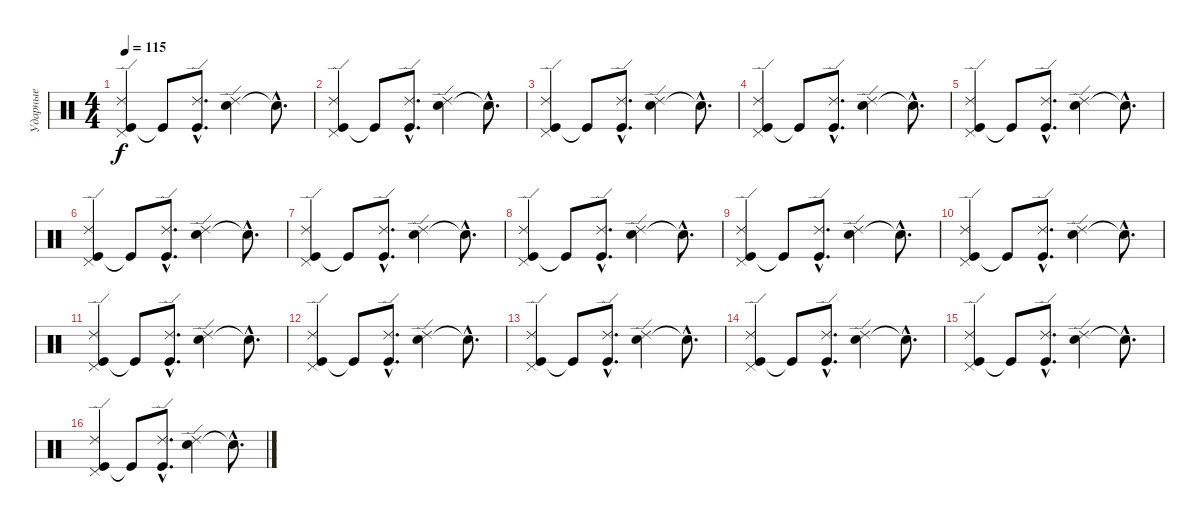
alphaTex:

\track ("Ударные" "Ударные") {instrument percussion}
\staff {score}
\articulation defaults
\ts (4 4)
\tempo 115
\clef neutral
\ks c
("Kick (hit)" "Ride (edge) 2" "Pedal Hi-Hat (hit)").4{dy f} "Kick (hit)"{t}.8 ("Kick (hit)"{hac} "Ride (edge) 2"{hac}).8{d} ("Electric Snare (hit)" "Ride (edge) 2").4 "Snare (hit)"{hac t}.8{d} |
("Kick (hit)" "Ride (edge) 2" "Pedal Hi-Hat (hit)").4 "Kick (hit)"{t}.8 ("Kick (hit)"{hac} "Ride (edge) 2"{hac}).8{d} ("Electric Snare (hit)" "Ride (edge) 2").4 "Snare (hit)"{hac t}.8{d} |
("Kick (hit)" "Ride (edge) 2" "Pedal Hi-Hat (hit)").4 "Kick (hit)"{t}.8 ("Kick (hit)"{hac} "Ride (edge) 2"{hac}).8{d} ("Electric Snare (hit)" "Ride (edge) 2").4 "Snare (hit)"{hac t}.8{d} |
("Kick (hit)" "Ride (edge) 2" "Pedal Hi-Hat (hit)").4 "Kick (hit)"{t}.8 ("Kick (hit)"{hac} "Ride (edge) 2"{hac}).8{d} ("Electric Snare (hit)" "Ride (edge) 2").4 "Snare (hit)"{hac t}.8{d} |
("Kick (hit)" "Ride (edge) 2" "Pedal Hi-Hat (hit)").4 "Kick (hit)"{t}.8 ("Kick (hit)"{hac} "Ride (edge) 2"{hac}).8{d} ("Electric Snare (hit)" "Ride (edge) 2").4 "Snare (hit)"{hac t}.8{d} |
("Kick (hit)" "Ride (edge) 2" "Pedal Hi-Hat (hit)").4 "Kick (hit)"{t}.8 ("Kick (hit)"{hac} "Ride (edge) 2"{hac}).8{d} ("Electric Snare (hit)" "Ride (edge) 2").4 "Snare (hit)"{hac t}.8{d} |
("Kick (hit)" "Ride (edge) 2" "Pedal Hi-Hat (hit)").4 "Kick (hit)"{t}.8 ("Kick (hit)"{hac} "Ride (edge) 2"{hac}).8{d} ("Electric Snare (hit)" "Ride (edge) 2").4 "Snare (hit)"{hac t}.8{d} |
("Kick (hit)" "Ride (edge) 2" "Pedal Hi-Hat (hit)").4 "Kick (hit)"{t}.8 ("Kick (hit)"{hac} "Ride (edge) 2"{hac}).8{d} ("Electric Snare (hit)" "Ride (edge) 2").4 "Snare (hit)"{hac t}.8{d} |
("Kick (hit)" "Ride (edge) 2" "Pedal Hi-Hat (hit)").4 "Kick (hit)"{t}.8 ("Kick (hit)"{hac} "Ride (edge) 2"{hac}).8{d} ("Electric Snare (hit)" "Ride (edge) 2").4 "Snare (hit)"{hac t}.8{d} |
("Kick (hit)" "Ride (edge) 2" "Pedal Hi-Hat (hit)").4 "Kick (hit)"{t}.8 ("Kick (hit)"{hac} "Ride (edge) 2"{hac}).8{d} ("Electric Snare (hit)" "Ride (edge) 2").4 "Snare (hit)"{hac t}.8{d} |
("Kick (hit)" "Ride (edge) 2" "Pedal Hi-Hat (hit)").4 "Kick (hit)"{t}.8 ("Kick (hit)"{hac} "Ride (edge) 2"{hac}).8{d} ("Electric Snare (hit)" "Ride (edge) 2").4 "Snare (hit)"{hac t}.8{d} |
("Kick (hit)" "Ride (edge) 2" "Pedal Hi-Hat (hit)").4 "Kick (hit)"{t}.8 ("Kick (hit)"{hac} "Ride (edge) 2"{hac}).8{d} ("Electric Snare (hit)" "Ride (edge) 2").4 "Snare (hit)"{hac t}.8{d} |
("Kick (hit)" "Ride (edge) 2" "Pedal Hi-Hat (hit)").4 "Kick (hit)"{t}.8 ("Kick (hit)"{hac} "Ride (edge) 2"{hac}).8{d} ("Electric Snare (hit)" "Ride (edge) 2").4 "Snare (hit)"{hac t}.8{d} |
("Kick (hit)" "Ride (edge) 2" "Pedal Hi-Hat (hit)").4 "Kick (hit)"{t}.8 ("Kick (hit)"{hac} "Ride (edge) 2"{hac}).8{d} ("Electric Snare (hit)" "Ride (edge) 2").4 "Snare (hit)"{hac t}.8{d} |
("Kick (hit)" "Ride (edge) 2" "Pedal Hi-Hat (hit)").4 "Kick (hit)"{t}.8 ("Kick (hit)"{hac} "Ride (edge) 2"{hac}).8{d} ("Electric Snare (hit)" "Ride (edge) 2").4 "Snare (hit)"{hac t}.8{d} |
("Kick (hit)" "Ride (edge) 2" "Pedal Hi-Hat (hit)").4 "Kick (hit)"{t}.8 ("Kick (hit)"{hac} "Ride (edge) 2"{hac}).8{d} ("Electric Snare (hit)" "Ride (edge) 2").4 "Snare (hit)"{hac t}.8{d}
